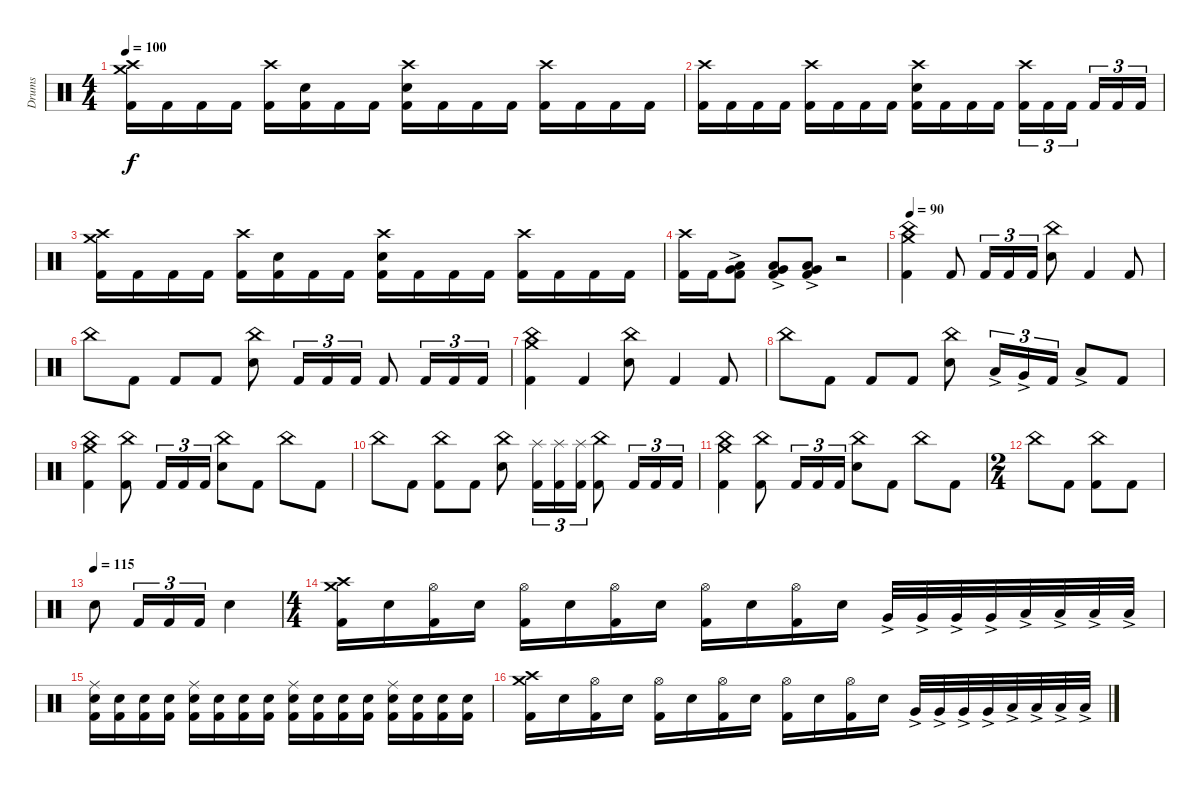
\track ("Drums" "Drums") {instrument percussion}
\staff {score}
\articulation defaults
\ts (4 4)
\tempo 100
\clef neutral
\ks c
("Crash medium (hit)" "Crash high (hit)" "Kick (hit) 2").16{dy f} "Kick (hit) 2".16 "Kick (hit) 2".16 "Kick (hit) 2".16 ("Crash high (hit)" "Kick (hit) 2").16 ("Electric Snare (hit)" "Kick (hit) 2").16 "Kick (hit) 2".16 "Kick (hit) 2".16 ("Crash high (hit)" "Electric Snare (hit)" "Kick (hit) 2").16 "Kick (hit) 2".16 "Kick (hit) 2".16 "Kick (hit) 2".16 ("Crash high (hit)" "Kick (hit) 2").16 "Kick (hit) 2".16 "Kick (hit) 2".16 "Kick (hit) 2".16 |
("Crash high (hit)" "Kick (hit) 2").16 "Kick (hit) 2".16 "Kick (hit) 2".16 "Kick (hit) 2".16 ("Crash high (hit)" "Kick (hit) 2").16 "Kick (hit) 2".16 "Kick (hit) 2".16 "Kick (hit) 2".16 ("Crash high (hit)" "Electric Snare (hit)" "Kick (hit) 2").16 "Kick (hit) 2".16 "Kick (hit) 2".16 "Kick (hit) 2".16 ("Crash high (hit)" "Kick (hit) 2").16{tu (3 2)} "Kick (hit) 2".16{tu (3 2)} "Kick (hit) 2".16{tu (3 2)} "Kick (hit) 2".16{tu (3 2)} "Kick (hit) 2".16{tu (3 2)} "Kick (hit) 2".16{tu (3 2)} |
("Crash medium (hit)" "Crash high (hit)" "Kick (hit) 2").16 "Kick (hit) 2".16 "Kick (hit) 2".16 "Kick (hit) 2".16 ("Crash high (hit)" "Kick (hit) 2").16 ("Electric Snare (hit)" "Kick (hit) 2").16 "Kick (hit) 2".16 "Kick (hit) 2".16 ("Crash high (hit)" "Electric Snare (hit)" "Kick (hit) 2").16 "Kick (hit) 2".16 "Kick (hit) 2".16 "Kick (hit) 2".16 ("Crash high (hit)" "Kick (hit) 2").16 "Kick (hit) 2".16 "Kick (hit) 2".16 "Kick (hit) 2".16 |
("Crash high (hit)" "Kick (hit) 2").16 "Kick (hit) 2".16 ("Very Low Tom (hit)"{ac} "Low Floor Tom (hit)"{ac} "Kick (hit) 2").8 ("Very Low Tom (hit)"{ac} "Low Floor Tom (hit)"{ac} "Kick (hit) 2").8 ("Very Low Tom (hit)"{ac} "Low Floor Tom (hit)"{ac} "Kick (hit) 2").8 r.2 |
\tempo 90
("Crash medium (hit)" "China (hit)" "Kick (hit) 2").4 "Kick (hit) 2".8 "Kick (hit) 2".16{tu (3 2)} "Kick (hit) 2".16{tu (3 2)} "Kick (hit) 2".16{tu (3 2)} ("China (hit)" "Electric Snare (hit)").8 "Kick (hit) 2".4 "Kick (hit) 2".8 |
"China (hit)".8 "Kick (hit) 2".8 "Kick (hit) 2".8 "Kick (hit) 2".8 ("China (hit)" "Electric Snare (hit)").8 "Kick (hit) 2".16{tu (3 2)} "Kick (hit) 2".16{tu (3 2)} "Kick (hit) 2".16{tu (3 2)} "Kick (hit) 2".8 "Kick (hit) 2".16{tu (3 2)} "Kick (hit) 2".16{tu (3 2)} "Kick (hit) 2".16{tu (3 2)} |
("Crash medium (hit)" "China (hit)" "Kick (hit) 2").4 "Kick (hit) 2".4 ("China (hit)" "Electric Snare (hit)").8 "Kick (hit) 2".4 "Kick (hit) 2".8 |
"China (hit)".8 "Kick (hit) 2".8 "Kick (hit) 2".8 "Kick (hit) 2".8 ("China (hit)" "Electric Snare (hit)").8 "Low Tom (hit)"{ac}.16{tu (3 2)} "Very Low Tom (hit)"{ac}.16{tu (3 2)} "Kick (hit) 2".16{tu (3 2)} "Low Floor Tom (hit)"{ac}.8 "Kick (hit) 2".8 |
("Crash medium (hit)" "China (hit)" "Kick (hit) 2").4 ("China (hit)" "Kick (hit) 2").8 "Kick (hit) 2".16{tu (3 2)} "Kick (hit) 2".16{tu (3 2)} "Kick (hit) 2".16{tu (3 2)} ("China (hit)" "Electric Snare (hit)").8 "Kick (hit) 2".8 "China (hit)".8 "Kick (hit) 2".8 |
"China (hit)".8 "Kick (hit) 2".8 ("China (hit)" "Kick (hit) 2").8 "Kick (hit) 2".8 ("China (hit)" "Electric Snare (hit)").8 ("Splash (hit)" "Kick (hit) 2").16{tu (3 2)} ("Splash (hit)" "Kick (hit) 2").16{tu (3 2)} ("Splash (hit)" "Kick (hit) 2").16{tu (3 2)} ("China (hit)" "Kick (hit) 2").8 "Kick (hit) 2".16{tu (3 2)} "Kick (hit) 2".16{tu (3 2)} "Kick (hit) 2".16{tu (3 2)} |
("Crash medium (hit)" "China (hit)" "Kick (hit) 2").4 ("China (hit)" "Kick (hit) 2").8 "Kick (hit) 2".16{tu (3 2)} "Kick (hit) 2".16{tu (3 2)} "Kick (hit) 2".16{tu (3 2)} ("China (hit)" "Electric Snare (hit)").8 "Kick (hit) 2".8 "China (hit)".8 "Kick (hit) 2".8 |
\ts (2 4)
"China (hit)".8 "Kick (hit) 2".8 ("China (hit)" "Kick (hit) 2").8 "Kick (hit) 2".8 |
\tempo (115)
"Electric Snare (hit)".8 "Kick (hit) 2".16{tu (3 2)} "Kick (hit) 2".16{tu (3 2)} "Kick (hit) 2".16{tu (3 2)} "Electric Snare (hit)".4 |
\ts (4 4)
("Crash medium (hit)" "Crash high (hit)" "Kick (hit) 2").16 "Electric Snare (hit)".16 ("Hi-Hat (open)" "Kick (hit) 2").16 "Electric Snare (hit)".16 ("Hi-Hat (open)" "Kick (hit) 2").16 "Electric Snare (hit)".16 ("Hi-Hat (open)" "Kick (hit) 2").16 "Electric Snare (hit)".16 ("Hi-Hat (open)" "Kick (hit) 2").16 "Electric Snare (hit)".16 ("Hi-Hat (open)" "Kick (hit) 2").16 "Electric Snare (hit)".16 "Very Low Tom (hit)"{ac}.32 "Very Low Tom (hit)"{ac}.32 "Very Low Tom (hit)"{ac}.32 "Very Low Tom (hit)"{ac}.32 "Low Floor Tom (hit)"{ac}.32 "Low Floor Tom (hit)"{ac}.32 "Low Floor Tom (hit)"{ac}.32 "Low Floor Tom (hit)"{ac}.32 |
("Electric Snare (hit)" "Ride (middle)" "Kick (hit) 2").16 ("Electric Snare (hit)" "Kick (hit) 2").16 ("Electric Snare (hit)" "Kick (hit) 2").16 ("Electric Snare (hit)" "Kick (hit) 2").16 ("Electric Snare (hit)" "Ride (middle)" "Kick (hit) 2").16 ("Electric Snare (hit)" "Kick (hit) 2").16 ("Electric Snare (hit)" "Kick (hit) 2").16 ("Electric Snare (hit)" "Kick (hit) 2").16 ("Electric Snare (hit)" "Ride (middle)" "Kick (hit) 2").16 ("Electric Snare (hit)" "Kick (hit) 2").16 ("Electric Snare (hit)" "Kick (hit) 2").16 ("Electric Snare (hit)" "Kick (hit) 2").16 ("Electric Snare (hit)" "Ride (middle)" "Kick (hit) 2").16 ("Electric Snare (hit)" "Kick (hit) 2").16 ("Electric Snare (hit)" "Kick (hit) 2").16 ("Electric Snare (hit)" "Kick (hit) 2").16 |
("Crash medium (hit)" "Crash high (hit)" "Kick (hit) 2").16 "Electric Snare (hit)".16 ("Hi-Hat (open)" "Kick (hit) 2").16 "Electric Snare (hit)".16 ("Hi-Hat (open)" "Kick (hit) 2").16 "Electric Snare (hit)".16 ("Hi-Hat (open)" "Kick (hit) 2").16 "Electric Snare (hit)".16 ("Hi-Hat (open)" "Kick (hit) 2").16 "Electric Snare (hit)".16 ("Hi-Hat (open)" "Kick (hit) 2").16 "Electric Snare (hit)".16 "Very Low Tom (hit)"{ac}.32 "Very Low Tom (hit)"{ac}.32 "Very Low Tom (hit)"{ac}.32 "Very Low Tom (hit)"{ac}.32 "Low Floor Tom (hit)"{ac}.32 "Low Floor Tom (hit)"{ac}.32 "Low Floor Tom (hit)"{ac}.32 "Low Floor Tom (hit)"{ac}.32
